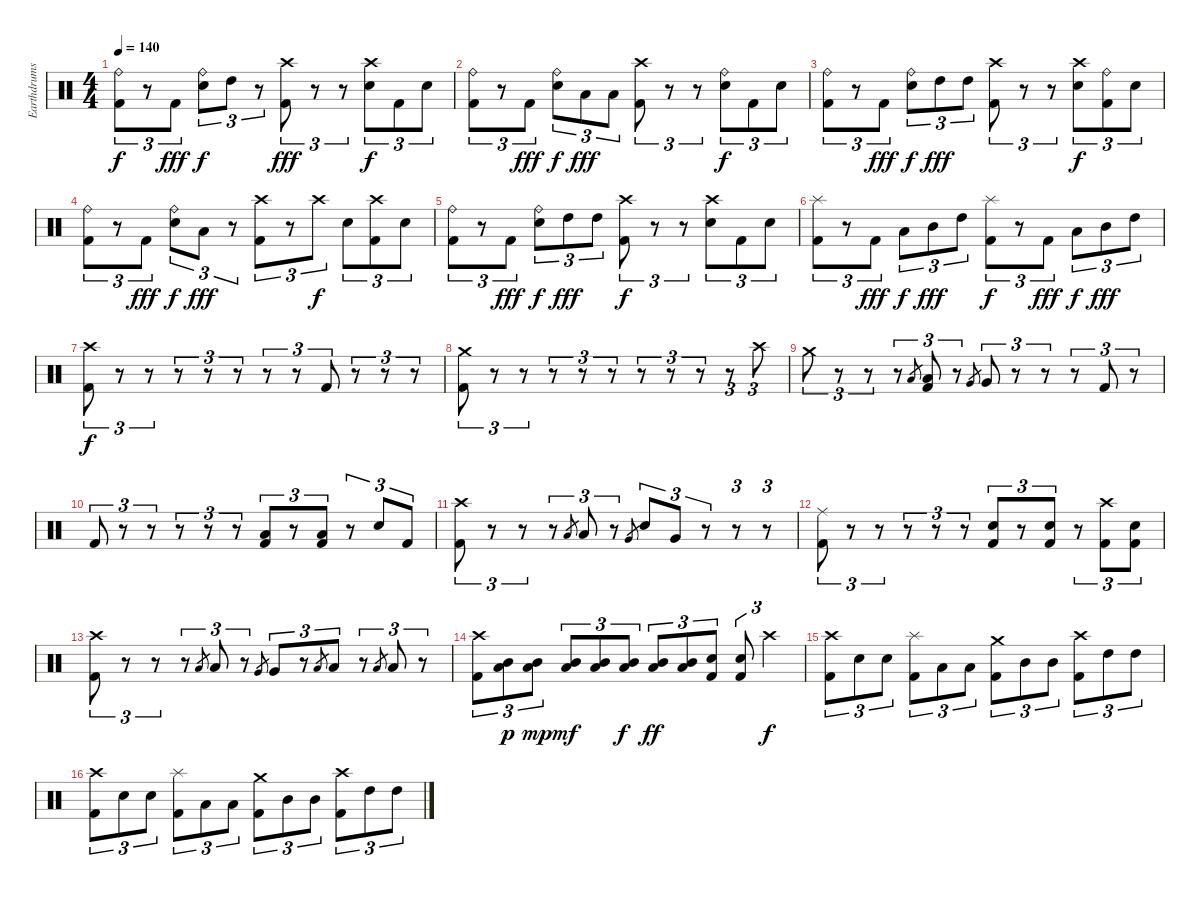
\track ("Earthdrums" "Earthdrums") {instrument percussion}
\staff {score}
\articulation defaults
\ts (4 4)
\tempo 140
\clef neutral
\ks c
("Ride (bell)" "Kick (hit) 2").8{tu (3 2) dy f} r.8{tu (3 2)} "Kick (hit) 2".8{tu (3 2) dy fff} ("Ride (bell)" "Snare (hit) 2").8{tu (3 2) dy f} "High Tom (hit)".8{tu (3 2)} r.8{tu (3 2)} ("Crash high (hit)" "Kick (hit) 2").8{tu (3 2) dy fff} r.8{tu (3 2)} r.8{tu (3 2)} ("Crash high (hit)" "Snare (hit) 2").8{tu (3 2) dy f} "Kick (hit) 2".8{tu (3 2)} "Snare (hit) 2".8{tu (3 2)} |
("Ride (bell)" "Kick (hit) 2").8{tu (3 2)} r.8{tu (3 2)} "Kick (hit) 2".8{tu (3 2) dy fff} ("Ride (bell)" "Snare (hit) 2").8{tu (3 2) dy f} "Low Tom (hit)".8{tu (3 2) dy fff} "Low Tom (hit)".8{tu (3 2)} ("Crash high (hit)" "Kick (hit) 2").8{tu (3 2)} r.8{tu (3 2)} r.8{tu (3 2)} ("Ride (bell)" "Snare (hit) 2").8{tu (3 2) dy f} "Kick (hit) 2".8{tu (3 2)} "Snare (hit) 2".8{tu (3 2)} |
("Ride (bell)" "Kick (hit) 2").8{tu (3 2)} r.8{tu (3 2)} "Kick (hit) 2".8{tu (3 2) dy fff} ("Ride (bell)" "Snare (hit) 2").8{tu (3 2) dy f} "High Tom (hit)".8{tu (3 2) dy fff} "High Tom (hit)".8{tu (3 2)} ("Crash high (hit)" "Kick (hit) 2").8{tu (3 2)} r.8{tu (3 2)} r.8{tu (3 2)} ("Crash high (hit)" "Snare (hit) 2").8{tu (3 2) dy f} ("Ride (bell)" "Kick (hit) 2").8{tu (3 2)} "Snare (hit) 2".8{tu (3 2)} |
("Ride (bell)" "Kick (hit) 2").8{tu (3 2)} r.8{tu (3 2)} "Kick (hit) 2".8{tu (3 2) dy fff} ("Ride (bell)" "Snare (hit) 2").8{tu (3 2) dy f} "Low Tom (hit)".8{tu (3 2) dy fff} r.8{tu (3 2)} ("Crash high (hit)" "Kick (hit) 2").8{tu (3 2)} r.8{tu (3 2)} "Crash high (hit)".8{tu (3 2) dy f} "Snare (hit) 2".8{tu (3 2)} ("Crash high (hit)" "Kick (hit) 2").8{tu (3 2)} "Snare (hit) 2".8{tu (3 2)} |
("Ride (bell)" "Kick (hit) 2").8{tu (3 2)} r.8{tu (3 2)} "Kick (hit) 2".8{tu (3 2) dy fff} ("Ride (bell)" "Snare (hit) 2").8{tu (3 2) dy f} "High Tom (hit)".8{tu (3 2) dy fff} "High Tom (hit)".8{tu (3 2)} ("Crash high (hit)" "Kick (hit) 2").8{tu (3 2) dy f} r.8{tu (3 2)} r.8{tu (3 2)} ("Crash high (hit)" "Snare (hit) 2").8{tu (3 2)} "Kick (hit) 2".8{tu (3 2)} "Snare (hit) 2".8{tu (3 2)} |
("Splash (hit)" "Kick (hit) 2").8{tu (3 2)} r.8{tu (3 2)} "Kick (hit) 2".8{tu (3 2) dy fff} "Low Tom (hit)".8{tu (3 2) dy f} "Mid Tom (hit)".8{tu (3 2) dy fff} "High Tom (hit)".8{tu (3 2)} ("Splash (hit)" "Kick (hit) 2").8{tu (3 2) dy f} r.8{tu (3 2)} "Kick (hit) 2".8{tu (3 2) dy fff} "Low Tom (hit)".8{tu (3 2) dy f} "Mid Tom (hit)".8{tu (3 2) dy fff} "High Tom (hit)".8{tu (3 2)} |
("Crash high (hit)" "Kick (hit) 2").8{tu (3 2) dy f} r.8{tu (3 2)} r.8{tu (3 2)} r.8{tu (3 2)} r.8{tu (3 2)} r.8{tu (3 2)} r.8{tu (3 2)} r.8{tu (3 2)} "Kick (hit) 2".8{tu (3 2)} r.8{tu (3 2)} r.8{tu (3 2)} r.8{tu (3 2)} |
("Crash medium (hit)" "Kick (hit) 2").8{tu (3 2)} r.8{tu (3 2)} r.8{tu (3 2)} r.8{tu (3 2)} r.8{tu (3 2)} r.8{tu (3 2)} r.8{tu (3 2)} r.8{tu (3 2)} r.8{tu (3 2)} r.8{tu (3 2)} "Crash high (hit)".8{tu (3 2)} |
"Crash medium (hit)".8{tu (3 2)} r.8{tu (3 2)} r.8{tu (3 2)} r.8{tu (3 2)} "Low Tom (hit)".8{gr} ("Low Tom (hit)" "Kick (hit) 2").8{tu (3 2)} r.8{tu (3 2)} "Very Low Tom (hit)".8{gr} "Very Low Tom (hit)".8{tu (3 2)} r.8{tu (3 2)} r.8{tu (3 2)} r.8{tu (3 2)} "Kick (hit) 2".8{tu (3 2)} r.8{tu (3 2)} |
"Kick (hit) 2".8{tu (3 2)} r.8{tu (3 2)} r.8{tu (3 2)} r.8{tu (3 2)} r.8{tu (3 2)} r.8{tu (3 2)} ("Low Tom (hit)" "Kick (hit) 2").8{tu (3 2)} r.8{tu (3 2)} ("Low Tom (hit)" "Kick (hit) 2").8{tu (3 2)} r.8{tu (3 2)} "Snare (hit) 2".8{tu (3 2)} "Kick (hit) 2".8{tu (3 2)} |
("Crash high (hit)" "Kick (hit) 2").8{tu (3 2)} r.8{tu (3 2)} r.8{tu (3 2)} r.8{tu (3 2)} "Low Tom (hit)".8{gr} "Low Tom (hit)".8{tu (3 2)} r.8{tu (3 2)} "Very Low Tom (hit)".8{gr} "Snare (hit) 2".8{tu (3 2)} "Very Low Tom (hit)".8{tu (3 2)} r.8{tu (3 2)} r.8{tu (3 2)} r.8{tu (3 2)} |
("Ride (middle)" "Kick (hit) 2").8{tu (3 2)} r.8{tu (3 2)} r.8{tu (3 2)} r.8{tu (3 2)} r.8{tu (3 2)} r.8{tu (3 2)} ("Snare (hit) 2" "Kick (hit) 2").8{tu (3 2)} r.8{tu (3 2)} ("Snare (hit) 2" "Kick (hit) 2").8{tu (3 2)} r.8{tu (3 2)} ("Crash high (hit)" "Kick (hit) 2").8{tu (3 2)} ("Snare (hit) 2" "Kick (hit) 2").8{tu (3 2)} |
("Crash high (hit)" "Kick (hit) 2").8{tu (3 2)} r.8{tu (3 2)} r.8{tu (3 2)} r.8{tu (3 2)} "Low Tom (hit)".8{gr} "Low Tom (hit)".8{tu (3 2)} r.8{tu (3 2)} "Very Low Tom (hit)".8{gr} "Very Low Tom (hit)".8{tu (3 2)} r.8{tu (3 2)} "Low Floor Tom (hit)".8{gr} "Low Floor Tom (hit)".8{tu (3 2)} r.8{tu (3 2)} "Low Tom (hit)".8{gr} "Low Tom (hit)".8{tu (3 2)} r.8{tu (3 2)} |
("Crash high (hit)" "Kick (hit) 2").8{tu (3 2)} ("Mid Tom (hit)" "Low Tom (hit)").8{tu (3 2) dy p} ("Mid Tom (hit)" "Low Tom (hit)").8{tu (3 2) dy mp} ("Mid Tom (hit)" "Low Tom (hit)").8{tu (3 2) dy mf} ("Mid Tom (hit)" "Low Tom (hit)").8{tu (3 2)} ("Mid Tom (hit)" "Low Tom (hit)").8{tu (3 2) dy f} ("Mid Tom (hit)" "Low Tom (hit)").8{tu (3 2) dy ff} ("Mid Tom (hit)" "Low Tom (hit)").8{tu (3 2)} ("Snare (hit) 2" "Kick (hit) 2").8{tu (3 2)} ("Snare (hit) 2" "Kick (hit) 2").8{tu (3 2)} "Crash high (hit)".4{tu (3 2) dy f} |
("Crash high (hit)" "Kick (hit) 2").8{tu (3 2)} "Snare (hit) 2".8{tu (3 2)} "Snare (hit) 2".8{tu (3 2)} ("Splash (hit)" "Kick (hit) 2").8{tu (3 2)} "Low Tom (hit)".8{tu (3 2)} "Low Tom (hit)".8{tu (3 2)} ("Crash medium (hit)" "Kick (hit) 2").8{tu (3 2)} "Mid Tom (hit)".8{tu (3 2)} "Mid Tom (hit)".8{tu (3 2)} ("Crash high (hit)" "Kick (hit) 2").8{tu (3 2)} "High Tom (hit)".8{tu (3 2)} "High Tom (hit)".8{tu (3 2)} |
("Crash high (hit)" "Kick (hit) 2").8{tu (3 2)} "Snare (hit) 2".8{tu (3 2)} "Snare (hit) 2".8{tu (3 2)} ("Splash (hit)" "Kick (hit) 2").8{tu (3 2)} "Low Tom (hit)".8{tu (3 2)} "Low Tom (hit)".8{tu (3 2)} ("Crash medium (hit)" "Kick (hit) 2").8{tu (3 2)} "Mid Tom (hit)".8{tu (3 2)} "Mid Tom (hit)".8{tu (3 2)} ("Crash high (hit)" "Kick (hit) 2").8{tu (3 2)} "High Tom (hit)".8{tu (3 2)} "High Tom (hit)".8{tu (3 2)}
